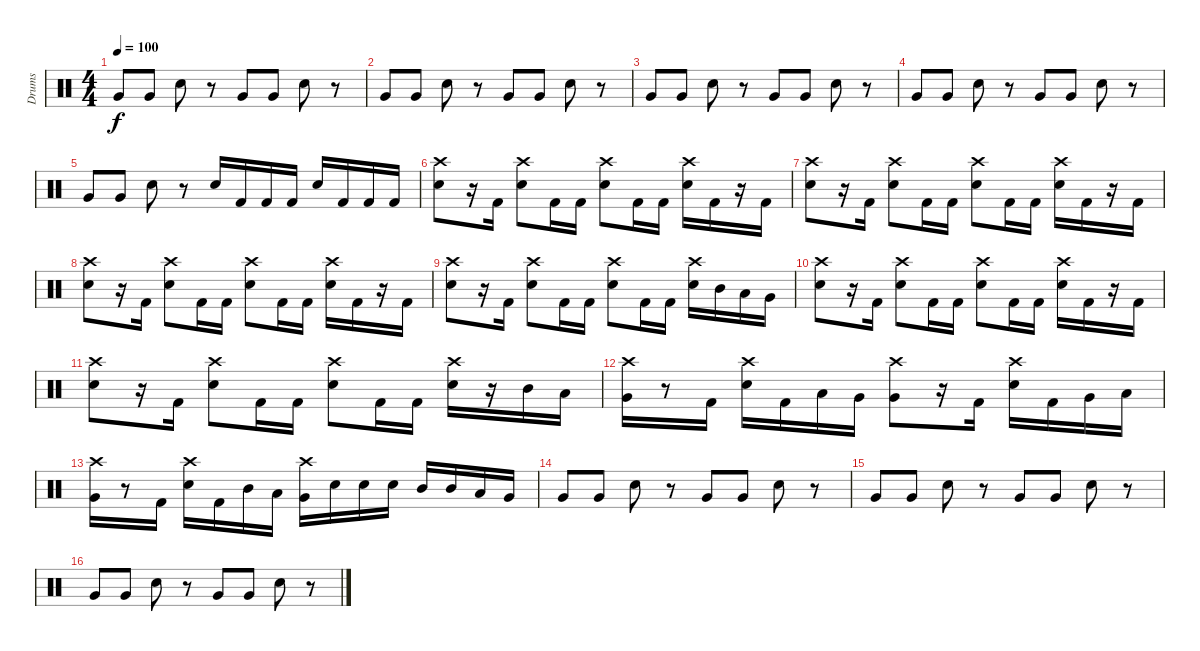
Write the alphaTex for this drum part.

\track ("Drums" "Drums") {instrument percussion}
\staff {score}
\articulation defaults
\ts (4 4)
\tempo 100
\clef neutral
\ks c "Very Low Tom (hit)".8{dy f} "Very Low Tom (hit)".8 "Electric Snare (hit)".8
r.8 "Very Low Tom (hit)".8 "Very Low Tom (hit)".8 "Electric Snare (hit)".8 r.8 |
"Very Low Tom (hit)".8 "Very Low Tom (hit)".8 "Electric Snare (hit)".8 r.8 "Very Low Tom (hit)".8 "Very Low Tom (hit)".8 "Electric Snare (hit)".8 r.8 |
"Very Low Tom (hit)".8 "Very Low Tom (hit)".8 "Electric Snare (hit)".8 r.8 "Very Low Tom (hit)".8 "Very Low Tom (hit)".8 "Electric Snare (hit)".8 r.8 |
"Very Low Tom (hit)".8 "Very Low Tom (hit)".8 "Electric Snare (hit)".8 r.8 "Very Low Tom (hit)".8 "Very Low Tom (hit)".8 "Electric Snare (hit)".8 r.8 |
"Very Low Tom (hit)".8 "Very Low Tom (hit)".8 "Electric Snare (hit)".8 r.8 "Electric Snare (hit)".16 "Kick (hit) 2".16 "Kick (hit) 2".16 "Kick (hit) 2".16 "Electric Snare (hit)".16 "Kick (hit) 2".16 "Kick (hit) 2".16 "Kick (hit) 2".16 |
("Crash high (hit)" "Electric Snare (hit)").8 r.16 "Kick (hit) 2".16 ("Crash high (hit)" "Electric Snare (hit)").8 "Kick (hit) 2".16 "Kick (hit) 2".16 ("Crash high (hit)" "Electric Snare (hit)").8 "Kick (hit) 2".16 "Kick (hit) 2".16 ("Crash high (hit)" "Electric Snare (hit)").16 "Kick (hit) 2".16 r.16 "Kick (hit) 2".16 |
("Crash high (hit)" "Electric Snare (hit)").8 r.16 "Kick (hit) 2".16 ("Crash high (hit)" "Electric Snare (hit)").8 "Kick (hit) 2".16 "Kick (hit) 2".16 ("Crash high (hit)" "Electric Snare (hit)").8 "Kick (hit) 2".16 "Kick (hit) 2".16 ("Crash high (hit)" "Electric Snare (hit)").16 "Kick (hit) 2".16 r.16 "Kick (hit) 2".16 |
("Crash high (hit)" "Electric Snare (hit)").8 r.16 "Kick (hit) 2".16 ("Crash high (hit)" "Electric Snare (hit)").8 "Kick (hit) 2".16 "Kick (hit) 2".16 ("Crash high (hit)" "Electric Snare (hit)").8 "Kick (hit) 2".16 "Kick (hit) 2".16 ("Crash high (hit)" "Electric Snare (hit)").16 "Kick (hit) 2".16 r.16 "Kick (hit) 2".16 |
("Crash high (hit)" "Electric Snare (hit)").8 r.16 "Kick (hit) 2".16 ("Crash high (hit)" "Electric Snare (hit)").8 "Kick (hit) 2".16 "Kick (hit) 2".16 ("Crash high (hit)" "Electric Snare (hit)").8 "Kick (hit) 2".16 "Kick (hit) 2".16 ("Crash high (hit)" "Electric Snare (hit)").16 "Mid Tom (hit)".16 "Low Tom (hit)".16 "Very Low Tom (hit)".16 |
("Crash high (hit)" "Electric Snare (hit)").8 r.16 "Kick (hit) 2".16 ("Crash high (hit)" "Electric Snare (hit)").8 "Kick (hit) 2".16 "Kick (hit) 2".16 ("Crash high (hit)" "Electric Snare (hit)").8 "Kick (hit) 2".16 "Kick (hit) 2".16 ("Crash high (hit)" "Electric Snare (hit)").16 "Kick (hit) 2".16 r.16 "Kick (hit) 2".16 |
("Crash high (hit)" "Electric Snare (hit)").8 r.16 "Kick (hit) 2".16 ("Crash high (hit)" "Electric Snare (hit)").8 "Kick (hit) 2".16 "Kick (hit) 2".16 ("Crash high (hit)" "Electric Snare (hit)").8 "Kick (hit) 2".16 "Kick (hit) 2".16 ("Crash high (hit)" "Electric Snare (hit)").16 r.16 "Mid Tom (hit)".16 "Low Tom (hit)".16 |
("Crash high (hit)" "Very Low Tom (hit)").16 r.8 "Kick (hit) 2".16 ("Crash high (hit)" "Electric Snare (hit)").16 "Kick (hit) 2".16 "Low Tom (hit)".16 "Very Low Tom (hit)".16 ("Crash high (hit)" "Very Low Tom (hit)").8 r.16 "Kick (hit) 2".16 ("Crash high (hit)" "Electric Snare (hit)").16 "Kick (hit) 2".16 "Very Low Tom (hit)".16 "Low Floor Tom (hit)".16 |
("Crash high (hit)" "Very Low Tom (hit)").16 r.8 "Kick (hit) 2".16 ("Crash high (hit)" "Electric Snare (hit)").16 "Kick (hit) 2".16 "Mid Tom (hit)".16 "Low Tom (hit)".16 ("Crash high (hit)" "Very Low Tom (hit)").16 "Electric Snare (hit)".16 "Electric Snare (hit)".16 "Electric Snare (hit)".16 "Mid Tom (hit)".16 "Mid Tom (hit)".16 "Low Tom (hit)".16 "Very Low Tom (hit)".16 |
"Very Low Tom (hit)".8 "Very Low Tom (hit)".8 "Electric Snare (hit)".8 r.8 "Very Low Tom (hit)".8 "Very Low Tom (hit)".8 "Electric Snare (hit)".8 r.8 |
"Very Low Tom (hit)".8 "Very Low Tom (hit)".8 "Electric Snare (hit)".8 r.8 "Very Low Tom (hit)".8 "Very Low Tom (hit)".8 "Electric Snare (hit)".8 r.8 |
"Very Low Tom (hit)".8 "Very Low Tom (hit)".8 "Electric Snare (hit)".8 r.8 "Very Low Tom (hit)".8 "Very Low Tom (hit)".8 "Electric Snare (hit)".8 r.8
